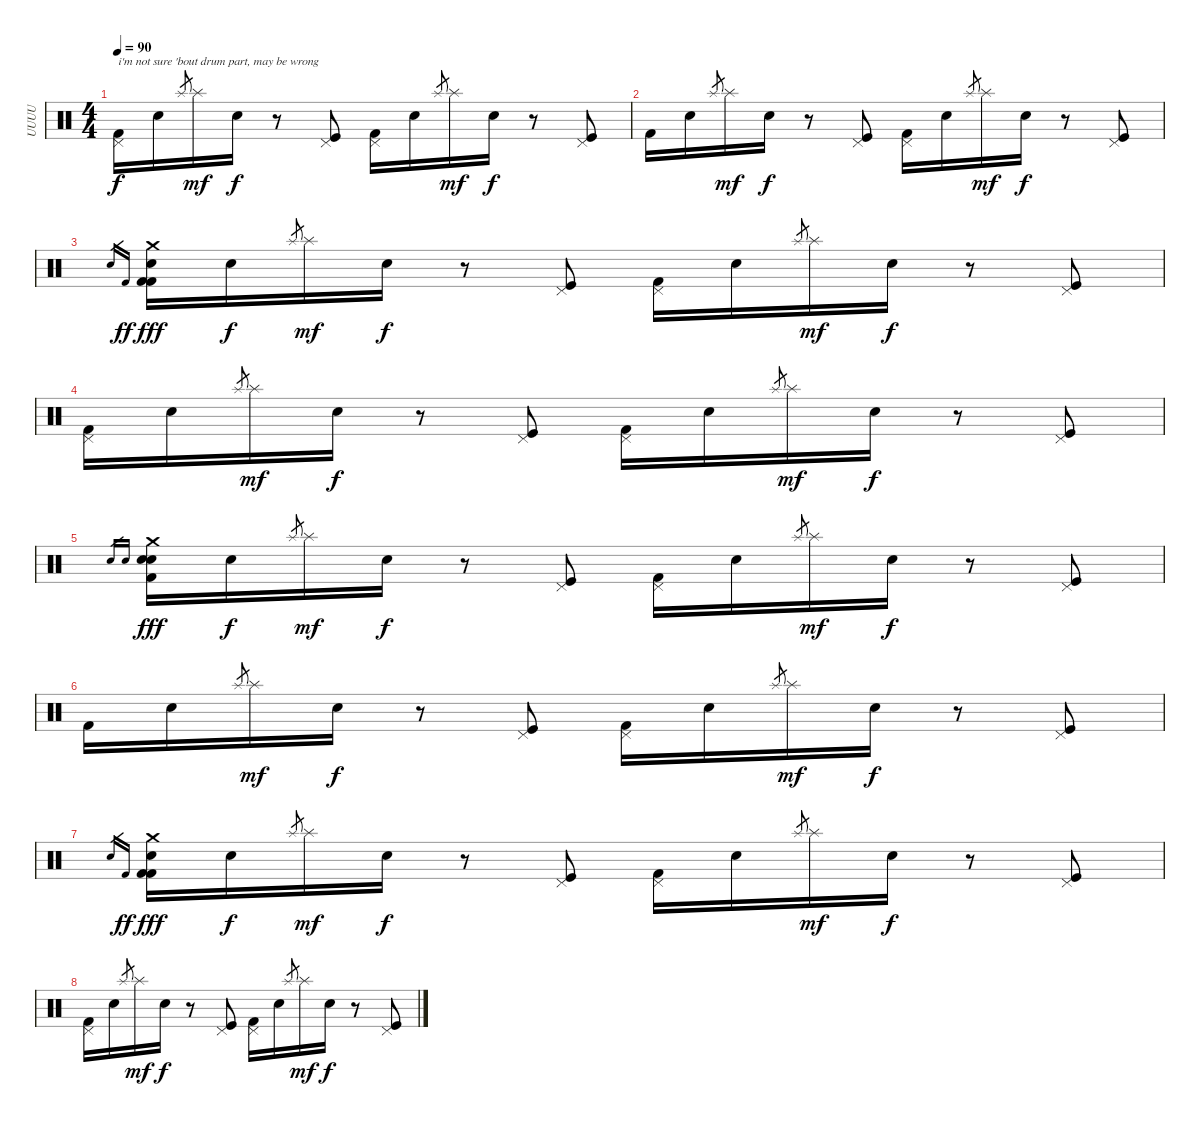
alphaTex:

\track ("UUUU" "UUUU") {instrument percussion}
\staff {score}
\articulation defaults
\ts (4 4)
\tempo 90
\clef neutral
\ks c
("Pedal Hi-Hat (hit)" "Kick (hit) 2").16{txt "i'm not sure 'bout drum part, may be wrong" dy f} "Snare (hit) 2".16 "Splash (hit)".8{gr} "Splash (hit)".16{dy mf} "Electric Snare (hit)".16{dy f} r.8 ("Pedal Hi-Hat (hit)" "Kick (hit)").8 ("Pedal Hi-Hat (hit)" "Kick (hit) 2").16 "Snare (hit) 2".16 "Splash (hit)"{h}.8{gr} "Splash (hit)".16{dy mf} "Electric Snare (hit)".16{dy f} r.8 ("Pedal Hi-Hat (hit)" "Kick (hit)").8 |
"Kick (hit) 2".16 "Snare (hit) 2".16 "Splash (hit)".8{gr} "Splash (hit)".16{dy mf} "Electric Snare (hit)".16{dy f} r.8 ("Pedal Hi-Hat (hit)" "Kick (hit)").8 ("Pedal Hi-Hat (hit)" "Kick (hit) 2").16 "Snare (hit) 2".16 "Splash (hit)".8{gr} "Splash (hit)".16{dy mf} "Electric Snare (hit)".16{dy f} r.8 ("Pedal Hi-Hat (hit)" "Kick (hit)").8 |
"Electric Snare (hit)".16{gr} "Kick (hit) 2".16{gr dy ff} ("Crash medium (hit)" "Kick (hit) 2" "Electric Snare (hit)" "Kick (hit) 2").16{dy fff} "Snare (hit) 2".16{dy f} "Splash (hit)".8{gr} "Splash (hit)".16{dy mf} "Electric Snare (hit)".16{dy f} r.8 ("Pedal Hi-Hat (hit)" "Kick (hit)").8 ("Pedal Hi-Hat (hit)" "Kick (hit) 2").16 "Snare (hit) 2".16 "Splash (hit)".8{gr} "Splash (hit)".16{dy mf} "Electric Snare (hit)".16{dy f} r.8 ("Pedal Hi-Hat (hit)" "Kick (hit)").8 |
("Pedal Hi-Hat (hit)" "Kick (hit) 2").16 "Snare (hit) 2".16 "Splash (hit)".8{gr} "Splash (hit)".16{dy mf} "Electric Snare (hit)".16{dy f} r.8 ("Pedal Hi-Hat (hit)" "Kick (hit)").8 ("Pedal Hi-Hat (hit)" "Kick (hit) 2").16 "Snare (hit) 2".16 "Splash (hit)"{h}.8{gr} "Splash (hit)".16{dy mf} "Electric Snare (hit)".16{dy f} r.8 ("Pedal Hi-Hat (hit)" "Kick (hit)").8 |
"Electric Snare (hit)".16{gr} "Snare (hit) 2".16{gr} ("Crash medium (hit)" "Kick (hit) 2" "Electric Snare (hit)" "Snare (hit) 2").16{dy fff} "Snare (hit) 2".16{dy f} "Splash (hit)".8{gr} "Splash (hit)".16{dy mf} "Electric Snare (hit)".16{dy f} r.8 ("Pedal Hi-Hat (hit)" "Kick (hit)").8 ("Pedal Hi-Hat (hit)" "Kick (hit) 2").16 "Snare (hit) 2".16 "Splash (hit)"{h}.8{gr} "Splash (hit)".16{dy mf} "Electric Snare (hit)".16{dy f} r.8 ("Pedal Hi-Hat (hit)" "Kick (hit)").8 |
"Kick (hit) 2".16 "Snare (hit) 2".16 "Splash (hit)".8{gr} "Splash (hit)".16{dy mf} "Electric Snare (hit)".16{dy f} r.8 ("Pedal Hi-Hat (hit)" "Kick (hit)").8 ("Pedal Hi-Hat (hit)" "Kick (hit) 2").16 "Snare (hit) 2".16 "Splash (hit)".8{gr} "Splash (hit)".16{dy mf} "Electric Snare (hit)".16{dy f} r.8 ("Pedal Hi-Hat (hit)" "Kick (hit)").8 |
"Electric Snare (hit)".16{gr} "Kick (hit) 2".16{gr dy ff} ("Crash medium (hit)" "Kick (hit) 2" "Electric Snare (hit)" "Kick (hit) 2").16{dy fff} "Snare (hit) 2".16{dy f} "Splash (hit)".8{gr} "Splash (hit)".16{dy mf} "Electric Snare (hit)".16{dy f} r.8 ("Pedal Hi-Hat (hit)" "Kick (hit)").8 ("Pedal Hi-Hat (hit)" "Kick (hit) 2").16 "Snare (hit) 2".16 "Splash (hit)".8{gr} "Splash (hit)".16{dy mf} "Electric Snare (hit)".16{dy f} r.8 ("Pedal Hi-Hat (hit)" "Kick (hit)").8 |
("Pedal Hi-Hat (hit)" "Kick (hit) 2").16 "Snare (hit) 2".16 "Splash (hit)".8{gr} "Splash (hit)".16{dy mf} "Electric Snare (hit)".16{dy f} r.8 ("Pedal Hi-Hat (hit)" "Kick (hit)").8 ("Pedal Hi-Hat (hit)" "Kick (hit) 2").16 "Snare (hit) 2".16 "Splash (hit)"{h}.8{gr} "Splash (hit)".16{dy mf} "Electric Snare (hit)".16{dy f} r.8 ("Pedal Hi-Hat (hit)" "Kick (hit)").8
